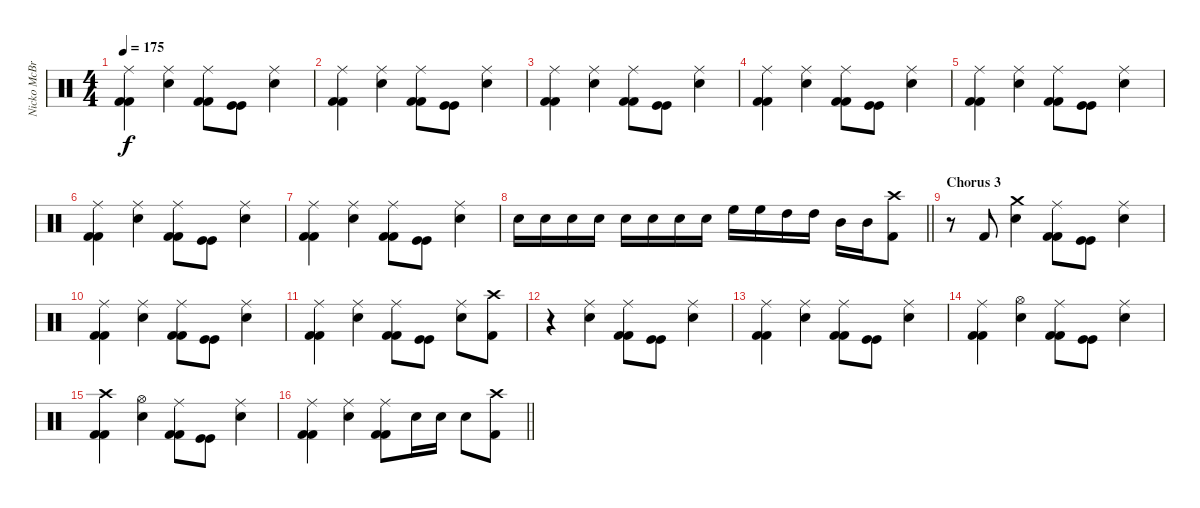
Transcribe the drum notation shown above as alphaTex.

\track ("Nicko McBrian" "Nicko McBr") {instrument percussion}
\staff {score}
\articulation defaults
\ts (4 4)
\tempo 175
\clef neutral
\ks c
("Ride (middle)" "Kick (hit) 2" "Kick (hit) 2").4{dy f} ("Ride (middle)" "Snare (hit) 2").4 ("Ride (middle)" "Kick (hit) 2" "Kick (hit) 2").8 ("Kick (hit)" "Kick (hit)").8 ("Ride (middle)" "Snare (hit) 2").4 |
("Ride (middle)" "Kick (hit) 2" "Kick (hit) 2").4 ("Ride (middle)" "Snare (hit) 2").4 ("Ride (middle)" "Kick (hit) 2" "Kick (hit) 2").8 ("Kick (hit)" "Kick (hit)").8 ("Ride (middle)" "Snare (hit) 2").4 |
("Ride (middle)" "Kick (hit) 2" "Kick (hit) 2").4 ("Ride (middle)" "Snare (hit) 2").4 ("Ride (middle)" "Kick (hit) 2" "Kick (hit) 2").8 ("Kick (hit)" "Kick (hit)").8 ("Ride (middle)" "Snare (hit) 2").4 |
("Ride (middle)" "Kick (hit) 2" "Kick (hit) 2").4 ("Ride (middle)" "Snare (hit) 2").4 ("Ride (middle)" "Kick (hit) 2" "Kick (hit) 2").8 ("Kick (hit)" "Kick (hit)").8 ("Ride (middle)" "Snare (hit) 2").4 |
("Ride (middle)" "Kick (hit) 2" "Kick (hit) 2").4 ("Ride (middle)" "Snare (hit) 2").4 ("Ride (middle)" "Kick (hit) 2" "Kick (hit) 2").8 ("Kick (hit)" "Kick (hit)").8 ("Ride (middle)" "Snare (hit) 2").4 |
("Ride (middle)" "Kick (hit) 2" "Kick (hit) 2").4 ("Ride (middle)" "Snare (hit) 2").4 ("Ride (middle)" "Kick (hit) 2" "Kick (hit) 2").8 ("Kick (hit)" "Kick (hit)").8 ("Ride (middle)" "Snare (hit) 2").4 |
("Ride (middle)" "Kick (hit) 2" "Kick (hit) 2").4 ("Ride (middle)" "Snare (hit) 2").4 ("Ride (middle)" "Kick (hit) 2" "Kick (hit) 2").8 ("Kick (hit)" "Kick (hit)").8 ("Ride (middle)" "Snare (hit) 2").4 |
\barLineRight lightlight "Snare (hit) 2".16 "Snare (hit) 2".16 "Snare (hit) 2".16 "Snare (hit) 2".16 "Snare (hit) 2".16 "Snare (hit) 2".16 "Snare (hit) 2".16 "Snare (hit) 2".16 "High Floor Tom (hit)".16 "High Floor Tom (hit)".16 "High Tom (hit)".16 "High Tom (hit)".16 "Mid Tom (hit)".16 "Mid Tom (hit)".16
("Crash high (hit)" "Kick (hit) 2").8 |
\section ("" "Chorus 3")
r.8 "Kick (hit) 2".8 ("Crash medium (hit)" "Snare (hit) 2").4 ("Ride (middle)" "Kick (hit) 2" "Kick (hit) 2").8 ("Kick (hit)" "Kick (hit)").8 ("Ride (middle)" "Snare (hit) 2").4 |
("Ride (middle)" "Kick (hit) 2" "Kick (hit) 2").4 ("Ride (middle)" "Snare (hit) 2").4 ("Ride (middle)" "Kick (hit) 2" "Kick (hit) 2").8 ("Kick (hit)" "Kick (hit)").8 ("Ride (middle)" "Snare (hit) 2").4 |
("Ride (middle)" "Kick (hit) 2" "Kick (hit) 2").4 ("Ride (middle)" "Snare (hit) 2").4 ("Ride (middle)" "Kick (hit) 2" "Kick (hit) 2").8 ("Kick (hit)" "Kick (hit)").8 ("Ride (middle)" "Snare (hit) 2").8 ("Crash high (hit)" "Kick (hit) 2").8 |
r.4 ("Ride (middle)" "Snare (hit) 2").4 ("Ride (middle)" "Kick (hit) 2" "Kick (hit) 2").8 ("Kick (hit)" "Kick (hit)").8 ("Ride (middle)" "Snare (hit) 2").4 |
("Ride (middle)" "Kick (hit) 2" "Kick (hit) 2").4 ("Ride (middle)" "Snare (hit) 2").4 ("Ride (middle)" "Kick (hit) 2" "Kick (hit) 2").8 ("Kick (hit)" "Kick (hit)").8 ("Ride (middle)" "Snare (hit) 2").4 |
("Ride (middle)" "Kick (hit) 2" "Kick (hit) 2").4 ("Hi-Hat (open)" "Snare (hit) 2").4 ("Ride (middle)" "Kick (hit) 2" "Kick (hit) 2").8 ("Kick (hit)" "Kick (hit)").8 ("Ride (middle)" "Snare (hit) 2").4 |
("Crash high (hit)" "Kick (hit) 2" "Kick (hit) 2").4 ("Hi-Hat (open)" "Snare (hit) 2").4 ("Ride (middle)" "Kick (hit) 2" "Kick (hit) 2").8 ("Kick (hit)" "Kick (hit)").8 ("Ride (middle)" "Snare (hit) 2").4 |
\barLineRight lightlight
("Ride (middle)" "Kick (hit) 2" "Kick (hit) 2").4 ("Ride (middle)" "Snare (hit) 2").4 ("Ride (middle)" "Kick (hit) 2" "Kick (hit) 2").8 "Snare (hit) 2".16 "Snare (hit) 2".16 "Snare (hit) 2".8 ("Crash high (hit)" "Kick (hit) 2").8
